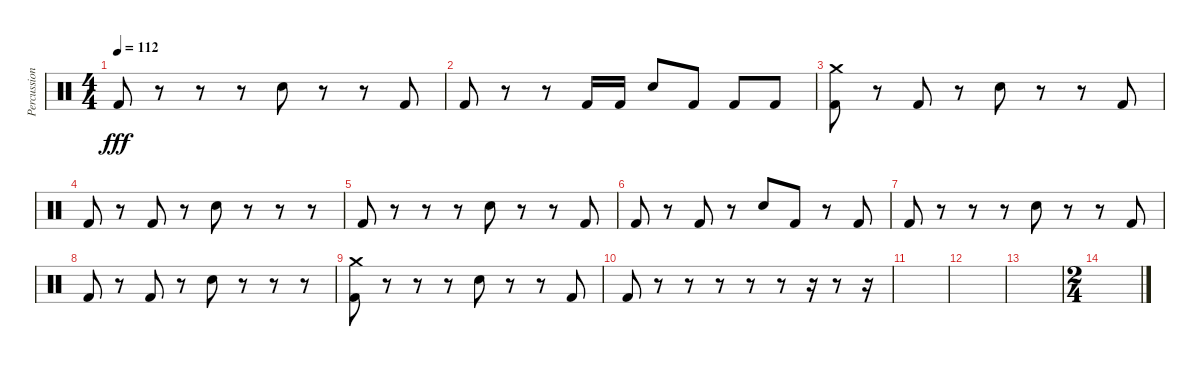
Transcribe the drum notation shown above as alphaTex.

\track ("Percussion" "Percussion") {instrument percussion}
\staff {score}
\articulation defaults
\ts (4 4)
\tempo 112
\clef neutral
\ks c "Kick (hit) 2".8{dy fff}
r.8 r.8 r.8 "Electric Snare (hit)".8 r.8 r.8 "Kick (hit) 2".8 |
"Kick (hit) 2".8 r.8 r.8 "Kick (hit) 2".16 "Kick (hit) 2".16 "Electric Snare (hit)".8 "Kick (hit) 2".8 "Kick (hit) 2".8 "Kick (hit) 2".8 |
("Kick (hit) 2" "Crash medium (hit)").8 r.8 "Kick (hit) 2".8 r.8 "Electric Snare (hit)".8 r.8 r.8 "Kick (hit) 2".8 |
"Kick (hit) 2".8 r.8 "Kick (hit) 2".8 r.8 "Electric Snare (hit)".8 r.8 r.8 r.8 |
"Kick (hit) 2".8 r.8 r.8 r.8 "Electric Snare (hit)".8 r.8 r.8 "Kick (hit) 2".8 |
"Kick (hit) 2".8 r.8 "Kick (hit) 2".8 r.8 "Electric Snare (hit)".8 "Kick (hit) 2".8 r.8 "Kick (hit) 2".8 |
"Kick (hit) 2".8 r.8 r.8 r.8 "Electric Snare (hit)".8 r.8 r.8 "Kick (hit) 2".8 |
"Kick (hit) 2".8 r.8 "Kick (hit) 2".8 r.8 "Electric Snare (hit)".8 r.8 r.8 r.8 |
("Kick (hit) 2" "Crash medium (hit)").8 r.8 r.8 r.8 "Electric Snare (hit)".8 r.8 r.8 "Kick (hit) 2".8 |
"Kick (hit) 2".8 r.8 r.8 r.8 r.8 r.8 r.16 r.8 r.16 |
|
|
|
\ts (2 4)
